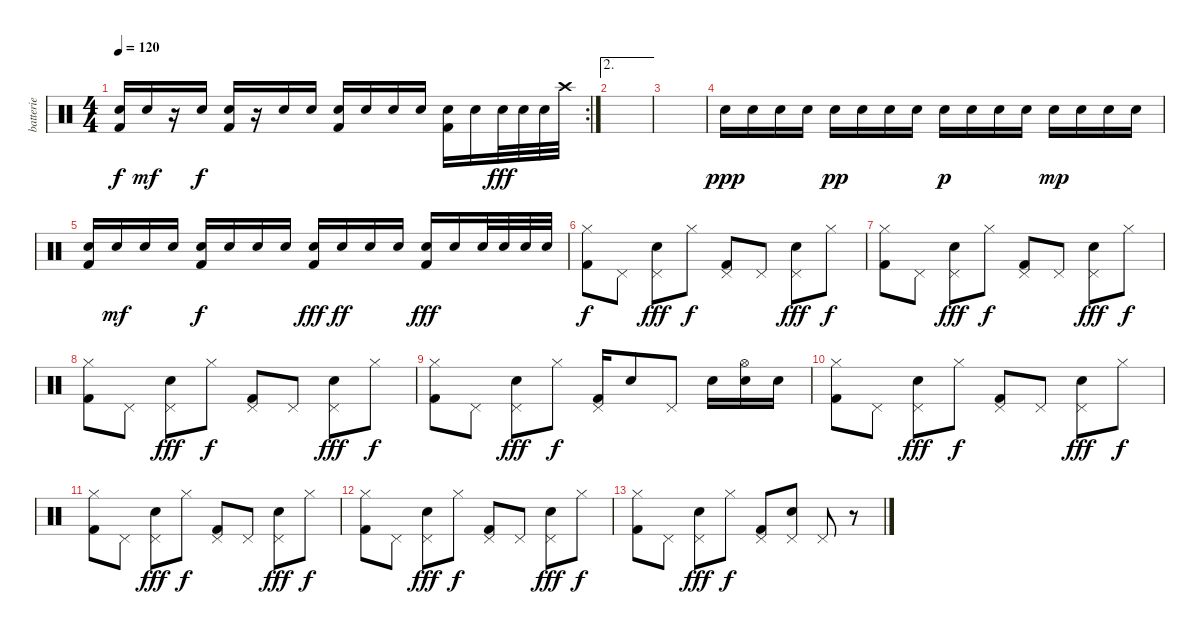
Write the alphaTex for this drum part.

\track ("batterie" "batterie") {instrument percussion}
\staff {score}
\articulation defaults
\rc 2
\ts (4 4)
\tempo 120
\clef neutral
\ks c
("Snare (hit) 2" "Kick (hit) 2").16{dy f} "Electric Snare (hit)".16{dy mf} r.16 "Snare (hit) 2".16{dy f} ("Electric Snare (hit)" "Kick (hit) 2").16 r.16 "Snare (hit) 2".16 "Electric Snare (hit)".16 ("Snare (hit) 2" "Kick (hit) 2").16 "Electric Snare (hit)".16 "Snare (hit) 2".16 "Electric Snare (hit)".16 ("Snare (hit) 2" "Kick (hit) 2").16 "Electric Snare (hit)".16 "Electric Snare (hit)".32{dy fff} "Electric Snare (hit)".32 "Electric Snare (hit)".32 "Crash high (hit)".32 |
\ae 2
|
|
"Electric Snare (hit)".16{dy ppp} "Electric Snare (hit)".16 "Electric Snare (hit)".16 "Electric Snare (hit)".16 "Electric Snare (hit)".16{dy pp} "Electric Snare (hit)".16 "Electric Snare (hit)".16 "Electric Snare (hit)".16 "Electric Snare (hit)".16{dy p} "Electric Snare (hit)".16 "Electric Snare (hit)".16 "Electric Snare (hit)".16 "Electric Snare (hit)".16{dy mp} "Electric Snare (hit)".16 "Electric Snare (hit)".16 "Electric Snare (hit)".16 |
("Electric Snare (hit)" "Kick (hit) 2").16 "Electric Snare (hit)".16{dy mf} "Electric Snare (hit)".16 "Electric Snare (hit)".16 ("Electric Snare (hit)" "Kick (hit) 2").16{dy f} "Electric Snare (hit)".16 "Electric Snare (hit)".16 "Electric Snare (hit)".16 ("Electric Snare (hit)" "Kick (hit) 2").16{dy fff} "Electric Snare (hit)".16{dy ff} "Electric Snare (hit)".16 "Electric Snare (hit)".16 ("Electric Snare (hit)" "Kick (hit) 2").16{dy fff} "Electric Snare (hit)".16 "Electric Snare (hit)".32 "Electric Snare (hit)".32 "Electric Snare (hit)".32 "Electric Snare (hit)".32 |
("Hi-Hat (closed)" "Kick (hit) 2").8{dy f} "Pedal Hi-Hat (hit)".8 ("Pedal Hi-Hat (hit)" "Electric Snare (hit)").8{dy fff} "Hi-Hat (closed)".8{dy f} ("Pedal Hi-Hat (hit)" "Kick (hit) 2").8 "Pedal Hi-Hat (hit)".8 ("Pedal Hi-Hat (hit)" "Electric Snare (hit)").8{dy fff} "Hi-Hat (closed)".8{dy f} |
("Hi-Hat (closed)" "Kick (hit) 2").8 "Pedal Hi-Hat (hit)".8 ("Pedal Hi-Hat (hit)" "Electric Snare (hit)").8{dy fff} "Hi-Hat (closed)".8{dy f} ("Pedal Hi-Hat (hit)" "Kick (hit) 2").8 "Pedal Hi-Hat (hit)".8 ("Pedal Hi-Hat (hit)" "Electric Snare (hit)").8{dy fff} "Hi-Hat (closed)".8{dy f} |
("Hi-Hat (closed)" "Kick (hit) 2").8 "Pedal Hi-Hat (hit)".8 ("Pedal Hi-Hat (hit)" "Electric Snare (hit)").8{dy fff} "Hi-Hat (closed)".8{dy f} ("Pedal Hi-Hat (hit)" "Kick (hit) 2").8 "Pedal Hi-Hat (hit)".8 ("Pedal Hi-Hat (hit)" "Electric Snare (hit)").8{dy fff} "Hi-Hat (closed)".8{dy f} |
("Hi-Hat (closed)" "Kick (hit) 2").8 "Pedal Hi-Hat (hit)".8 ("Pedal Hi-Hat (hit)" "Electric Snare (hit)").8{dy fff} "Hi-Hat (closed)".8{dy f} ("Pedal Hi-Hat (hit)" "Kick (hit) 2").16 "Electric Snare (hit)".8 "Pedal Hi-Hat (hit)".8 "Electric Snare (hit)".16 ("Electric Snare (hit)" "Hi-Hat (open)").16 "Electric Snare (hit)".16 |
("Hi-Hat (closed)" "Kick (hit) 2").8 "Pedal Hi-Hat (hit)".8 ("Pedal Hi-Hat (hit)" "Electric Snare (hit)").8{dy fff} "Hi-Hat (closed)".8{dy f} ("Pedal Hi-Hat (hit)" "Kick (hit) 2").8 "Pedal Hi-Hat (hit)".8 ("Pedal Hi-Hat (hit)" "Electric Snare (hit)").8{dy fff} "Hi-Hat (closed)".8{dy f} |
("Hi-Hat (closed)" "Kick (hit) 2").8 "Pedal Hi-Hat (hit)".8 ("Pedal Hi-Hat (hit)" "Electric Snare (hit)").8{dy fff} "Hi-Hat (closed)".8{dy f} ("Pedal Hi-Hat (hit)" "Kick (hit) 2").8 "Pedal Hi-Hat (hit)".8 ("Pedal Hi-Hat (hit)" "Electric Snare (hit)").8{dy fff} "Hi-Hat (closed)".8{dy f} |
("Hi-Hat (closed)" "Kick (hit) 2").8 "Pedal Hi-Hat (hit)".8 ("Pedal Hi-Hat (hit)" "Electric Snare (hit)").8{dy fff} "Hi-Hat (closed)".8{dy f} ("Pedal Hi-Hat (hit)" "Kick (hit) 2").8 "Pedal Hi-Hat (hit)".8 ("Pedal Hi-Hat (hit)" "Electric Snare (hit)").8{dy fff} "Hi-Hat (closed)".8{dy f} |
("Hi-Hat (closed)" "Kick (hit) 2").8 "Pedal Hi-Hat (hit)".8 ("Pedal Hi-Hat (hit)" "Electric Snare (hit)").8{dy fff} "Hi-Hat (closed)".8{dy f} ("Pedal Hi-Hat (hit)" "Kick (hit) 2").8 ("Pedal Hi-Hat (hit)" "Electric Snare (hit)").8 "Pedal Hi-Hat (hit)".8 r.8
